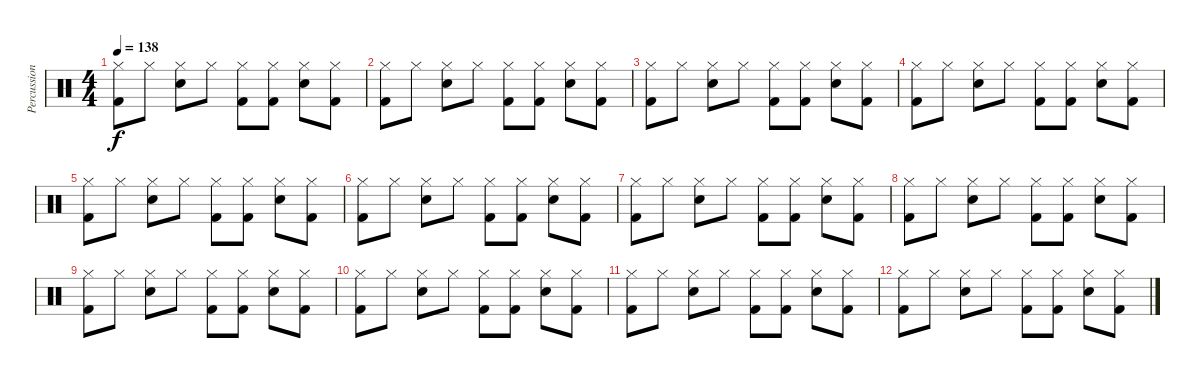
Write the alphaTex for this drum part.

\track ("Percussion" "Percussion") {instrument percussion}
\staff {score}
\articulation defaults
\ts (4 4)
\tempo 138
\clef neutral
\ks c
("Hi-Hat (closed)" "Kick (hit) 2").8{dy f} "Hi-Hat (closed)".8 ("Hi-Hat (closed)" "Snare (hit) 2").8 "Hi-Hat (closed)".8 ("Hi-Hat (closed)" "Kick (hit) 2").8 ("Hi-Hat (closed)" "Kick (hit) 2").8 ("Hi-Hat (closed)" "Snare (hit) 2").8 ("Hi-Hat (closed)" "Kick (hit) 2").8 |
("Hi-Hat (closed)" "Kick (hit) 2").8 "Hi-Hat (closed)".8 ("Hi-Hat (closed)" "Snare (hit) 2").8 "Hi-Hat (closed)".8 ("Hi-Hat (closed)" "Kick (hit) 2").8 ("Hi-Hat (closed)" "Kick (hit) 2").8 ("Hi-Hat (closed)" "Snare (hit) 2").8 ("Hi-Hat (closed)" "Kick (hit) 2").8 |
("Hi-Hat (closed)" "Kick (hit) 2").8 "Hi-Hat (closed)".8 ("Hi-Hat (closed)" "Snare (hit) 2").8 "Hi-Hat (closed)".8 ("Hi-Hat (closed)" "Kick (hit) 2").8 ("Hi-Hat (closed)" "Kick (hit) 2").8 ("Hi-Hat (closed)" "Snare (hit) 2").8 ("Hi-Hat (closed)" "Kick (hit) 2").8 |
("Hi-Hat (closed)" "Kick (hit) 2").8 "Hi-Hat (closed)".8 ("Hi-Hat (closed)" "Snare (hit) 2").8 "Hi-Hat (closed)".8 ("Hi-Hat (closed)" "Kick (hit) 2").8 ("Hi-Hat (closed)" "Kick (hit) 2").8 ("Hi-Hat (closed)" "Snare (hit) 2").8 ("Hi-Hat (closed)" "Kick (hit) 2").8 |
("Hi-Hat (closed)" "Kick (hit) 2").8 "Hi-Hat (closed)".8 ("Hi-Hat (closed)" "Snare (hit) 2").8 "Hi-Hat (closed)".8 ("Hi-Hat (closed)" "Kick (hit) 2").8 ("Hi-Hat (closed)" "Kick (hit) 2").8 ("Hi-Hat (closed)" "Snare (hit) 2").8 ("Hi-Hat (closed)" "Kick (hit) 2").8 |
("Hi-Hat (closed)" "Kick (hit) 2").8 "Hi-Hat (closed)".8 ("Hi-Hat (closed)" "Snare (hit) 2").8 "Hi-Hat (closed)".8 ("Hi-Hat (closed)" "Kick (hit) 2").8 ("Hi-Hat (closed)" "Kick (hit) 2").8 ("Hi-Hat (closed)" "Snare (hit) 2").8 ("Hi-Hat (closed)" "Kick (hit) 2").8 |
("Hi-Hat (closed)" "Kick (hit) 2").8 "Hi-Hat (closed)".8 ("Hi-Hat (closed)" "Snare (hit) 2").8 "Hi-Hat (closed)".8 ("Hi-Hat (closed)" "Kick (hit) 2").8 ("Hi-Hat (closed)" "Kick (hit) 2").8 ("Hi-Hat (closed)" "Snare (hit) 2").8 ("Hi-Hat (closed)" "Kick (hit) 2").8 |
("Hi-Hat (closed)" "Kick (hit) 2").8 "Hi-Hat (closed)".8 ("Hi-Hat (closed)" "Snare (hit) 2").8 "Hi-Hat (closed)".8 ("Hi-Hat (closed)" "Kick (hit) 2").8 ("Hi-Hat (closed)" "Kick (hit) 2").8 ("Hi-Hat (closed)" "Snare (hit) 2").8 ("Hi-Hat (closed)" "Kick (hit) 2").8 |
("Hi-Hat (closed)" "Kick (hit) 2").8 "Hi-Hat (closed)".8 ("Hi-Hat (closed)" "Snare (hit) 2").8 "Hi-Hat (closed)".8 ("Hi-Hat (closed)" "Kick (hit) 2").8 ("Hi-Hat (closed)" "Kick (hit) 2").8 ("Hi-Hat (closed)" "Snare (hit) 2").8 ("Hi-Hat (closed)" "Kick (hit) 2").8 |
("Hi-Hat (closed)" "Kick (hit) 2").8{volume 0} "Hi-Hat (closed)".8 ("Hi-Hat (closed)" "Snare (hit) 2").8 "Hi-Hat (closed)".8 ("Hi-Hat (closed)" "Kick (hit) 2").8 ("Hi-Hat (closed)" "Kick (hit) 2").8 ("Hi-Hat (closed)" "Snare (hit) 2").8 ("Hi-Hat (closed)" "Kick (hit) 2").8 |
("Hi-Hat (closed)" "Kick (hit) 2").8 "Hi-Hat (closed)".8 ("Hi-Hat (closed)" "Snare (hit) 2").8 "Hi-Hat (closed)".8 ("Hi-Hat (closed)" "Kick (hit) 2").8 ("Hi-Hat (closed)" "Kick (hit) 2").8 ("Hi-Hat (closed)" "Snare (hit) 2").8 ("Hi-Hat (closed)" "Kick (hit) 2").8 |
("Hi-Hat (closed)" "Kick (hit) 2").8 "Hi-Hat (closed)".8 ("Hi-Hat (closed)" "Snare (hit) 2").8 "Hi-Hat (closed)".8 ("Hi-Hat (closed)" "Kick (hit) 2").8 ("Hi-Hat (closed)" "Kick (hit) 2").8 ("Hi-Hat (closed)" "Snare (hit) 2").8 ("Hi-Hat (closed)" "Kick (hit) 2").8
